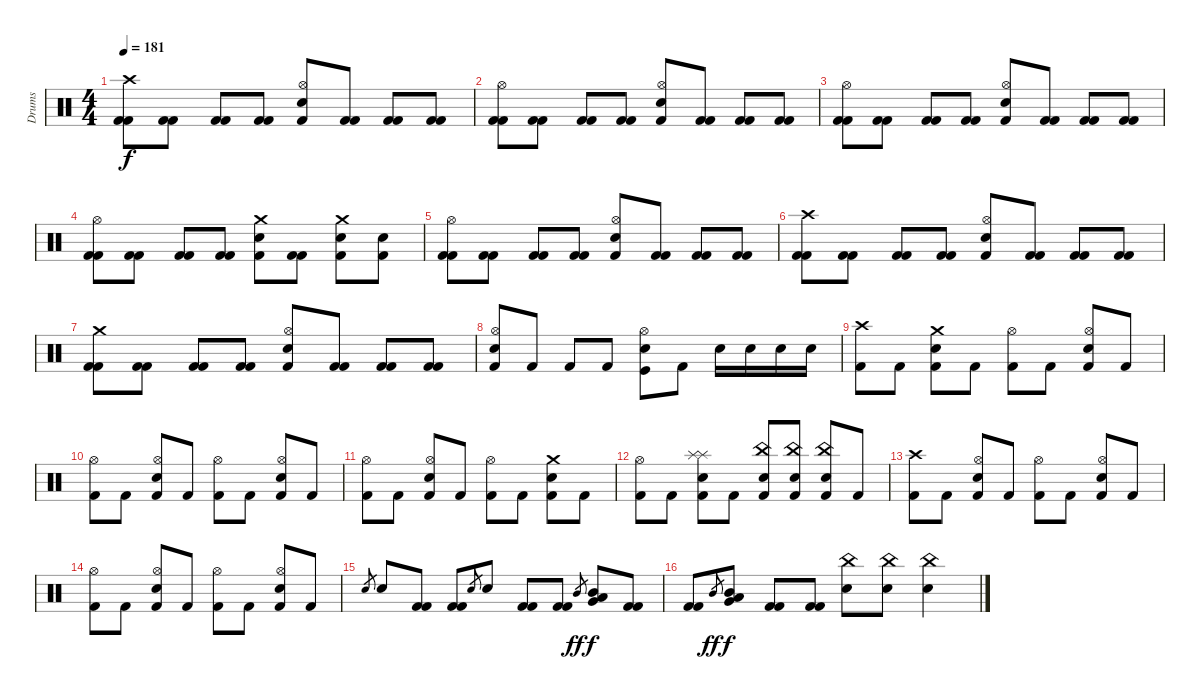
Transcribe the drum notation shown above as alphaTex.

\track ("Drums" "Drums") {instrument percussion}
\staff {score}
\articulation defaults
\ts (4 4)
\tempo 181
\clef neutral
\ks c
("Crash high (hit)" "Kick (hit) 2" "Kick (hit) 2").8{dy f} ("Kick (hit) 2" "Kick (hit) 2").8 ("Kick (hit) 2" "Kick (hit) 2").8 ("Kick (hit) 2" "Kick (hit) 2").8 ("Hi-Hat (open)" "Electric Snare (hit)" "Kick (hit) 2").8 ("Kick (hit) 2" "Kick (hit) 2").8 ("Kick (hit) 2" "Kick (hit) 2").8 ("Kick (hit) 2" "Kick (hit) 2").8 |
("Hi-Hat (open)" "Kick (hit) 2" "Kick (hit) 2").8 ("Kick (hit) 2" "Kick (hit) 2").8 ("Kick (hit) 2" "Kick (hit) 2").8 ("Kick (hit) 2" "Kick (hit) 2").8 ("Hi-Hat (open)" "Electric Snare (hit)" "Kick (hit) 2").8 ("Kick (hit) 2" "Kick (hit) 2").8 ("Kick (hit) 2" "Kick (hit) 2").8 ("Kick (hit) 2" "Kick (hit) 2").8 |
("Hi-Hat (open)" "Kick (hit) 2" "Kick (hit) 2").8 ("Kick (hit) 2" "Kick (hit) 2").8 ("Kick (hit) 2" "Kick (hit) 2").8 ("Kick (hit) 2" "Kick (hit) 2").8 ("Hi-Hat (open)" "Electric Snare (hit)" "Kick (hit) 2").8 ("Kick (hit) 2" "Kick (hit) 2").8 ("Kick (hit) 2" "Kick (hit) 2").8 ("Kick (hit) 2" "Kick (hit) 2").8 |
("Hi-Hat (open)" "Kick (hit) 2" "Kick (hit) 2").8 ("Kick (hit) 2" "Kick (hit) 2").8 ("Kick (hit) 2" "Kick (hit) 2").8 ("Kick (hit) 2" "Kick (hit) 2").8 ("Crash medium (hit)" "Electric Snare (hit)" "Kick (hit) 2").8 ("Kick (hit) 2" "Kick (hit) 2").8 ("Crash medium (hit)" "Electric Snare (hit)" "Kick (hit) 2").8 ("Electric Snare (hit)" "Kick (hit) 2").8 |
("Hi-Hat (open)" "Kick (hit) 2" "Kick (hit) 2").8 ("Kick (hit) 2" "Kick (hit) 2").8 ("Kick (hit) 2" "Kick (hit) 2").8 ("Kick (hit) 2" "Kick (hit) 2").8 ("Hi-Hat (open)" "Electric Snare (hit)" "Kick (hit) 2").8 ("Kick (hit) 2" "Kick (hit) 2").8 ("Kick (hit) 2" "Kick (hit) 2").8 ("Kick (hit) 2" "Kick (hit) 2").8 |
("Crash high (hit)" "Kick (hit) 2" "Kick (hit) 2").8 ("Kick (hit) 2" "Kick (hit) 2").8 ("Kick (hit) 2" "Kick (hit) 2").8 ("Kick (hit) 2" "Kick (hit) 2").8 ("Hi-Hat (open)" "Electric Snare (hit)" "Kick (hit) 2").8 ("Kick (hit) 2" "Kick (hit) 2").8 ("Kick (hit) 2" "Kick (hit) 2").8 ("Kick (hit) 2" "Kick (hit) 2").8 |
("Crash medium (hit)" "Kick (hit) 2" "Kick (hit) 2").8 ("Kick (hit) 2" "Kick (hit) 2").8 ("Kick (hit) 2" "Kick (hit) 2").8 ("Kick (hit) 2" "Kick (hit) 2").8 ("Hi-Hat (open)" "Electric Snare (hit)" "Kick (hit) 2").8 ("Kick (hit) 2" "Kick (hit) 2").8 ("Kick (hit) 2" "Kick (hit) 2").8 ("Kick (hit) 2" "Kick (hit) 2").8 |
("Hi-Hat (open)" "Electric Snare (hit)" "Kick (hit) 2").8 "Kick (hit) 2".8 "Kick (hit) 2".8 "Kick (hit) 2".8 ("Hi-Hat (open)" "Electric Snare (hit)" "Kick (hit)").8 "Kick (hit) 2".8 "Electric Snare (hit)".16 "Electric Snare (hit)".16 "Electric Snare (hit)".16 "Electric Snare (hit)".16 |
("Crash high (hit)" "Kick (hit) 2").8 "Kick (hit) 2".8 ("Crash medium (hit)" "Electric Snare (hit)" "Kick (hit) 2").8 "Kick (hit) 2".8 ("Hi-Hat (open)" "Kick (hit) 2").8 "Kick (hit) 2".8 ("Hi-Hat (open)" "Electric Snare (hit)" "Kick (hit) 2").8 "Kick (hit) 2".8 |
("Hi-Hat (open)" "Kick (hit) 2").8 "Kick (hit) 2".8 ("Hi-Hat (open)" "Electric Snare (hit)" "Kick (hit) 2").8 "Kick (hit) 2".8 ("Hi-Hat (open)" "Kick (hit) 2").8 "Kick (hit) 2".8 ("Hi-Hat (open)" "Electric Snare (hit)" "Kick (hit) 2").8 "Kick (hit) 2".8 |
("Hi-Hat (open)" "Kick (hit) 2").8 "Kick (hit) 2".8 ("Hi-Hat (open)" "Electric Snare (hit)" "Kick (hit) 2").8 "Kick (hit) 2".8 ("Hi-Hat (open)" "Kick (hit) 2").8 "Kick (hit) 2".8 ("Crash medium (hit)" "Electric Snare (hit)" "Kick (hit) 2").8 "Kick (hit) 2".8 |
("Hi-Hat (open)" "Kick (hit) 2").8 "Kick (hit) 2".8 ("Splash (hit)" "Splash (hit)" "Electric Snare (hit)" "Kick (hit) 2").8 "Kick (hit) 2".8 ("China (hit)" "Snare (hit) 2" "Kick (hit) 2").8 ("China (hit)" "Snare (hit) 2" "Kick (hit) 2").8 ("China (hit)" "Snare (hit) 2" "Kick (hit) 2").8 "Kick (hit) 2".8 |
("Crash high (hit)" "Kick (hit) 2").8 "Kick (hit) 2".8 ("Hi-Hat (open)" "Electric Snare (hit)" "Kick (hit) 2").8 "Kick (hit) 2".8 ("Hi-Hat (open)" "Kick (hit) 2").8 "Kick (hit) 2".8 ("Hi-Hat (open)" "Electric Snare (hit)" "Kick (hit) 2").8 "Kick (hit) 2".8 |
("Hi-Hat (open)" "Kick (hit) 2").8 "Kick (hit) 2".8 ("Hi-Hat (open)" "Electric Snare (hit)" "Kick (hit) 2").8 "Kick (hit) 2".8 ("Hi-Hat (open)" "Kick (hit) 2").8 "Kick (hit) 2".8 ("Hi-Hat (open)" "Electric Snare (hit)" "Kick (hit) 2").8 "Kick (hit) 2".8 |
"Electric Snare (hit)".8{gr} "Electric Snare (hit)".8 ("Kick (hit) 2" "Kick (hit) 2").8 ("Kick (hit) 2" "Kick (hit) 2").8 "Electric Snare (hit)".8{gr} "Electric Snare (hit)".8 ("Kick (hit) 2" "Kick (hit) 2").8 ("Kick (hit) 2" "Kick (hit) 2").8 "Mid Tom (hit)".8{gr dy ff} ("Mid Tom (hit)" "Low Tom (hit)" "Very Low Tom (hit)").8{dy f} ("Kick (hit) 2" "Kick (hit) 2").8 |
("Kick (hit) 2" "Kick (hit) 2").8 "Mid Tom (hit)".8{gr dy ff} ("Mid Tom (hit)" "Low Tom (hit)" "Very Low Tom (hit)").8{dy f} ("Kick (hit) 2" "Kick (hit) 2").8 ("Kick (hit) 2" "Kick (hit) 2").8 ("China (hit)" "Snare (hit) 2").8 ("China (hit)" "Snare (hit) 2").8 ("China (hit)" "Snare (hit) 2").4
